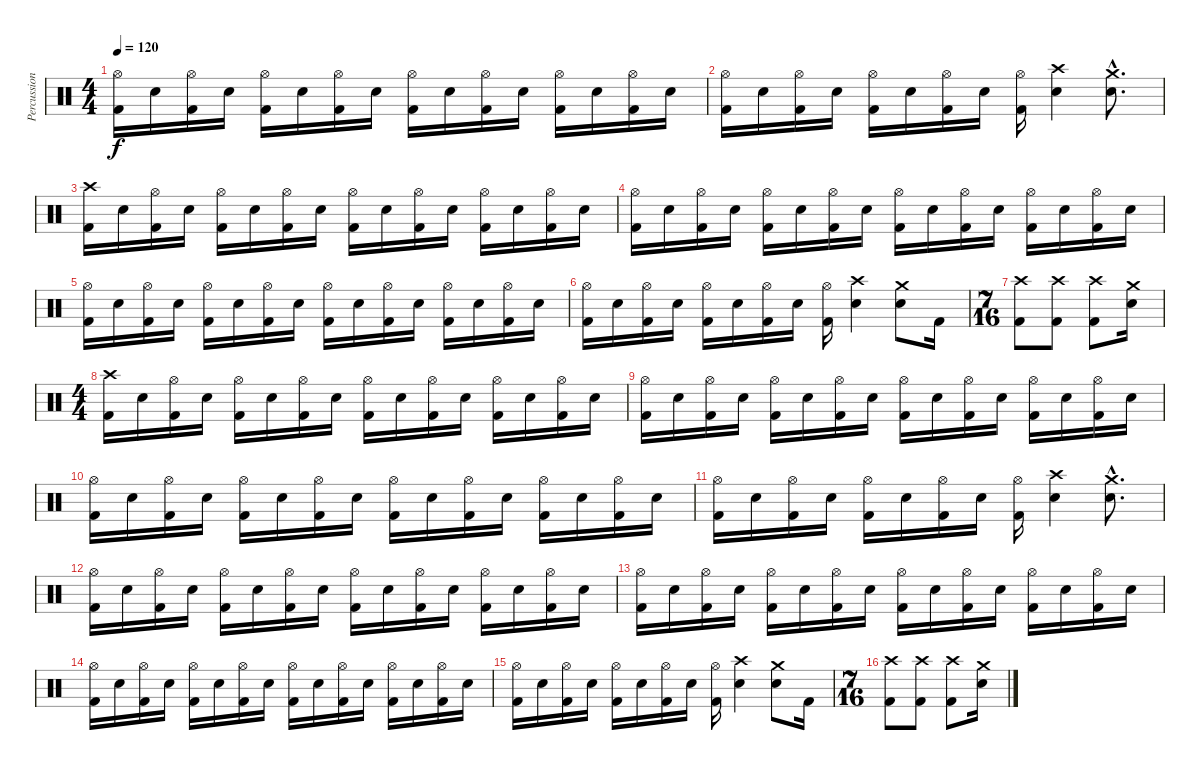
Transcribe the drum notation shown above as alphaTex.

\track ("Percussion" "Percussion") {instrument percussion}
\staff {score}
\articulation defaults
\ts (4 4)
\tempo 120
\clef neutral
\ks c
("Hi-Hat (open)" "Kick (hit) 2").16{dy f} "Electric Snare (hit)".16 ("Hi-Hat (open)" "Kick (hit) 2").16 "Electric Snare (hit)".16 ("Hi-Hat (open)" "Kick (hit) 2").16 "Electric Snare (hit)".16 ("Hi-Hat (open)" "Kick (hit) 2").16 "Electric Snare (hit)".16 ("Hi-Hat (open)" "Kick (hit) 2").16 "Electric Snare (hit)".16 ("Hi-Hat (open)" "Kick (hit) 2").16 "Electric Snare (hit)".16 ("Hi-Hat (open)" "Kick (hit) 2").16 "Electric Snare (hit)".16 ("Hi-Hat (open)" "Kick (hit) 2").16 "Electric Snare (hit)".16 |
("Hi-Hat (open)" "Kick (hit) 2").16 "Electric Snare (hit)".16 ("Hi-Hat (open)" "Kick (hit) 2").16 "Electric Snare (hit)".16 ("Hi-Hat (open)" "Kick (hit) 2").16 "Electric Snare (hit)".16 ("Hi-Hat (open)" "Kick (hit) 2").16 "Electric Snare (hit)".16 ("Hi-Hat (open)" "Kick (hit) 2").16 ("Crash high (hit)" "Electric Snare (hit)").4 ("Crash medium (hit)"{hac} "Electric Snare (hit)"{hac}).8{d} |
("Crash high (hit)" "Kick (hit) 2").16 "Electric Snare (hit)".16 ("Hi-Hat (open)" "Kick (hit) 2").16 "Electric Snare (hit)".16 ("Hi-Hat (open)" "Kick (hit) 2").16 "Electric Snare (hit)".16 ("Hi-Hat (open)" "Kick (hit) 2").16 "Electric Snare (hit)".16 ("Hi-Hat (open)" "Kick (hit) 2").16 "Electric Snare (hit)".16 ("Hi-Hat (open)" "Kick (hit) 2").16 "Electric Snare (hit)".16 ("Hi-Hat (open)" "Kick (hit) 2").16 "Electric Snare (hit)".16 ("Hi-Hat (open)" "Kick (hit) 2").16 "Electric Snare (hit)".16 |
("Hi-Hat (open)" "Kick (hit) 2").16 "Electric Snare (hit)".16 ("Hi-Hat (open)" "Kick (hit) 2").16 "Electric Snare (hit)".16 ("Hi-Hat (open)" "Kick (hit) 2").16 "Electric Snare (hit)".16 ("Hi-Hat (open)" "Kick (hit) 2").16 "Electric Snare (hit)".16 ("Hi-Hat (open)" "Kick (hit) 2").16 "Electric Snare (hit)".16 ("Hi-Hat (open)" "Kick (hit) 2").16 "Electric Snare (hit)".16 ("Hi-Hat (open)" "Kick (hit) 2").16 "Electric Snare (hit)".16 ("Hi-Hat (open)" "Kick (hit) 2").16 "Electric Snare (hit)".16 |
("Hi-Hat (open)" "Kick (hit) 2").16 "Electric Snare (hit)".16 ("Hi-Hat (open)" "Kick (hit) 2").16 "Electric Snare (hit)".16 ("Hi-Hat (open)" "Kick (hit) 2").16 "Electric Snare (hit)".16 ("Hi-Hat (open)" "Kick (hit) 2").16 "Electric Snare (hit)".16 ("Hi-Hat (open)" "Kick (hit) 2").16 "Electric Snare (hit)".16 ("Hi-Hat (open)" "Kick (hit) 2").16 "Electric Snare (hit)".16 ("Hi-Hat (open)" "Kick (hit) 2").16 "Electric Snare (hit)".16 ("Hi-Hat (open)" "Kick (hit) 2").16 "Electric Snare (hit)".16 |
("Hi-Hat (open)" "Kick (hit) 2").16 "Electric Snare (hit)".16 ("Hi-Hat (open)" "Kick (hit) 2").16 "Electric Snare (hit)".16 ("Hi-Hat (open)" "Kick (hit) 2").16 "Electric Snare (hit)".16 ("Hi-Hat (open)" "Kick (hit) 2").16 "Electric Snare (hit)".16 ("Hi-Hat (open)" "Kick (hit) 2").16 ("Crash high (hit)" "Electric Snare (hit)").4 ("Crash medium (hit)" "Electric Snare (hit)").8 "Kick (hit) 2".16 |
\ts (7 16)
("Crash high (hit)" "Kick (hit) 2").8 ("Crash high (hit)" "Kick (hit) 2").8 ("Crash high (hit)" "Kick (hit) 2").8 ("Crash medium (hit)" "Electric Snare (hit)").16 |
\ts (4 4)
("Crash high (hit)" "Kick (hit) 2").16 "Electric Snare (hit)".16 ("Hi-Hat (open)" "Kick (hit) 2").16 "Electric Snare (hit)".16 ("Hi-Hat (open)" "Kick (hit) 2").16 "Electric Snare (hit)".16 ("Hi-Hat (open)" "Kick (hit) 2").16 "Electric Snare (hit)".16 ("Hi-Hat (open)" "Kick (hit) 2").16 "Electric Snare (hit)".16 ("Hi-Hat (open)" "Kick (hit) 2").16 "Electric Snare (hit)".16 ("Hi-Hat (open)" "Kick (hit) 2").16 "Electric Snare (hit)".16 ("Hi-Hat (open)" "Kick (hit) 2").16 "Electric Snare (hit)".16 |
("Hi-Hat (open)" "Kick (hit) 2").16 "Electric Snare (hit)".16 ("Hi-Hat (open)" "Kick (hit) 2").16 "Electric Snare (hit)".16 ("Hi-Hat (open)" "Kick (hit) 2").16 "Electric Snare (hit)".16 ("Hi-Hat (open)" "Kick (hit) 2").16 "Electric Snare (hit)".16 ("Hi-Hat (open)" "Kick (hit) 2").16 "Electric Snare (hit)".16 ("Hi-Hat (open)" "Kick (hit) 2").16 "Electric Snare (hit)".16 ("Hi-Hat (open)" "Kick (hit) 2").16 "Electric Snare (hit)".16 ("Hi-Hat (open)" "Kick (hit) 2").16 "Electric Snare (hit)".16 |
("Hi-Hat (open)" "Kick (hit) 2").16 "Electric Snare (hit)".16 ("Hi-Hat (open)" "Kick (hit) 2").16 "Electric Snare (hit)".16 ("Hi-Hat (open)" "Kick (hit) 2").16 "Electric Snare (hit)".16 ("Hi-Hat (open)" "Kick (hit) 2").16 "Electric Snare (hit)".16 ("Hi-Hat (open)" "Kick (hit) 2").16 "Electric Snare (hit)".16 ("Hi-Hat (open)" "Kick (hit) 2").16 "Electric Snare (hit)".16 ("Hi-Hat (open)" "Kick (hit) 2").16 "Electric Snare (hit)".16 ("Hi-Hat (open)" "Kick (hit) 2").16 "Electric Snare (hit)".16 |
("Hi-Hat (open)" "Kick (hit) 2").16 "Electric Snare (hit)".16 ("Hi-Hat (open)" "Kick (hit) 2").16 "Electric Snare (hit)".16 ("Hi-Hat (open)" "Kick (hit) 2").16 "Electric Snare (hit)".16 ("Hi-Hat (open)" "Kick (hit) 2").16 "Electric Snare (hit)".16 ("Hi-Hat (open)" "Kick (hit) 2").16 ("Crash high (hit)" "Electric Snare (hit)").4 ("Crash medium (hit)"{hac} "Electric Snare (hit)"{hac}).8{d} |
("Hi-Hat (open)" "Kick (hit) 2").16 "Electric Snare (hit)".16 ("Hi-Hat (open)" "Kick (hit) 2").16 "Electric Snare (hit)".16 ("Hi-Hat (open)" "Kick (hit) 2").16 "Electric Snare (hit)".16 ("Hi-Hat (open)" "Kick (hit) 2").16 "Electric Snare (hit)".16 ("Hi-Hat (open)" "Kick (hit) 2").16 "Electric Snare (hit)".16 ("Hi-Hat (open)" "Kick (hit) 2").16 "Electric Snare (hit)".16 ("Hi-Hat (open)" "Kick (hit) 2").16 "Electric Snare (hit)".16 ("Hi-Hat (open)" "Kick (hit) 2").16 "Electric Snare (hit)".16 |
("Hi-Hat (open)" "Kick (hit) 2").16 "Electric Snare (hit)".16 ("Hi-Hat (open)" "Kick (hit) 2").16 "Electric Snare (hit)".16 ("Hi-Hat (open)" "Kick (hit) 2").16 "Electric Snare (hit)".16 ("Hi-Hat (open)" "Kick (hit) 2").16 "Electric Snare (hit)".16 ("Hi-Hat (open)" "Kick (hit) 2").16 "Electric Snare (hit)".16 ("Hi-Hat (open)" "Kick (hit) 2").16 "Electric Snare (hit)".16 ("Hi-Hat (open)" "Kick (hit) 2").16 "Electric Snare (hit)".16 ("Hi-Hat (open)" "Kick (hit) 2").16 "Electric Snare (hit)".16 |
("Hi-Hat (open)" "Kick (hit) 2").16 "Electric Snare (hit)".16 ("Hi-Hat (open)" "Kick (hit) 2").16 "Electric Snare (hit)".16 ("Hi-Hat (open)" "Kick (hit) 2").16 "Electric Snare (hit)".16 ("Hi-Hat (open)" "Kick (hit) 2").16 "Electric Snare (hit)".16 ("Hi-Hat (open)" "Kick (hit) 2").16 "Electric Snare (hit)".16 ("Hi-Hat (open)" "Kick (hit) 2").16 "Electric Snare (hit)".16 ("Hi-Hat (open)" "Kick (hit) 2").16 "Electric Snare (hit)".16 ("Hi-Hat (open)" "Kick (hit) 2").16 "Electric Snare (hit)".16 |
("Hi-Hat (open)" "Kick (hit) 2").16 "Electric Snare (hit)".16 ("Hi-Hat (open)" "Kick (hit) 2").16 "Electric Snare (hit)".16 ("Hi-Hat (open)" "Kick (hit) 2").16 "Electric Snare (hit)".16 ("Hi-Hat (open)" "Kick (hit) 2").16 "Electric Snare (hit)".16 ("Hi-Hat (open)" "Kick (hit) 2").16 ("Crash high (hit)" "Electric Snare (hit)").4 ("Crash medium (hit)" "Electric Snare (hit)").8 "Kick (hit) 2".16 |
\ts (7 16)
("Crash high (hit)" "Kick (hit) 2").8 ("Crash high (hit)" "Kick (hit) 2").8 ("Crash high (hit)" "Kick (hit) 2").8 ("Crash medium (hit)" "Electric Snare (hit)").16
